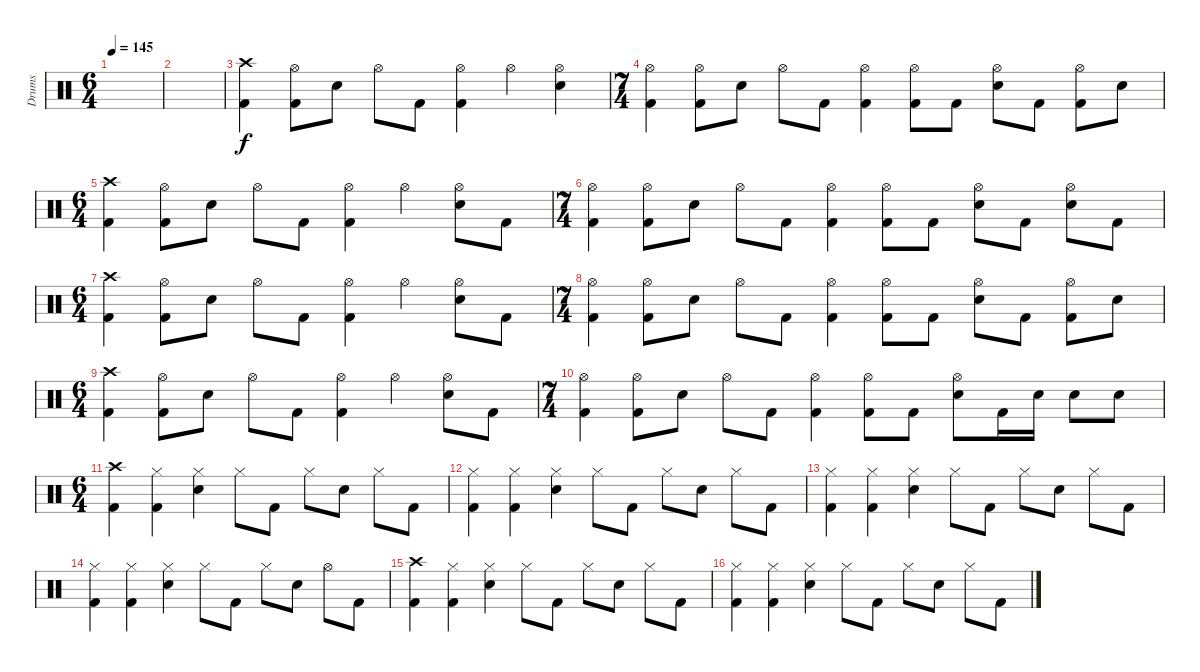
\track ("Drums" "Drums") {instrument percussion}
\staff {score}
\articulation defaults
\ts (6 4)
\tempo 145
\clef neutral
\ks c
|
|
("Crash high (hit)" "Kick (hit) 2").4 ("Hi-Hat (open)" "Kick (hit) 2").8 "Snare (hit) 2".8 "Hi-Hat (open)".8 "Kick (hit) 2".8 ("Hi-Hat (open)" "Kick (hit) 2").4 "Hi-Hat (open)".4 ("Hi-Hat (open)" "Snare (hit) 2").4 |
\ts (7 4)
("Hi-Hat (open)" "Kick (hit) 2").4 ("Hi-Hat (open)" "Kick (hit) 2").8 "Snare (hit) 2".8 "Hi-Hat (open)".8 "Kick (hit) 2".8 ("Hi-Hat (open)" "Kick (hit) 2").4 ("Hi-Hat (open)" "Kick (hit) 2").8 "Kick (hit) 2".8 ("Hi-Hat (open)" "Snare (hit) 2").8 "Kick (hit) 2".8 ("Hi-Hat (open)" "Kick (hit) 2").8 "Snare (hit) 2".8 |
\ts (6 4)
("Crash high (hit)" "Kick (hit) 2").4 ("Hi-Hat (open)" "Kick (hit) 2").8 "Snare (hit) 2".8 "Hi-Hat (open)".8 "Kick (hit) 2".8 ("Hi-Hat (open)" "Kick (hit) 2").4 "Hi-Hat (open)".4 ("Hi-Hat (open)" "Snare (hit) 2").8 "Kick (hit) 2".8 |
\ts (7 4)
("Hi-Hat (open)" "Kick (hit) 2").4 ("Hi-Hat (open)" "Kick (hit) 2").8 "Snare (hit) 2".8 "Hi-Hat (open)".8 "Kick (hit) 2".8 ("Hi-Hat (open)" "Kick (hit) 2").4 ("Hi-Hat (open)" "Kick (hit) 2").8 "Kick (hit) 2".8 ("Hi-Hat (open)" "Snare (hit) 2").8 "Kick (hit) 2".8 ("Hi-Hat (open)" "Snare (hit) 2").8 "Kick (hit) 2".8 |
\ts (6 4)
("Crash high (hit)" "Kick (hit) 2").4 ("Hi-Hat (open)" "Kick (hit) 2").8 "Snare (hit) 2".8 "Hi-Hat (open)".8 "Kick (hit) 2".8 ("Hi-Hat (open)" "Kick (hit) 2").4 "Hi-Hat (open)".4 ("Hi-Hat (open)" "Snare (hit) 2").8 "Kick (hit) 2".8 |
\ts (7 4)
("Hi-Hat (open)" "Kick (hit) 2").4 ("Hi-Hat (open)" "Kick (hit) 2").8 "Snare (hit) 2".8 "Hi-Hat (open)".8 "Kick (hit) 2".8 ("Hi-Hat (open)" "Kick (hit) 2").4 ("Hi-Hat (open)" "Kick (hit) 2").8 "Kick (hit) 2".8 ("Hi-Hat (open)" "Snare (hit) 2").8 "Kick (hit) 2".8 ("Hi-Hat (open)" "Kick (hit) 2").8 "Snare (hit) 2".8 |
\ts (6 4)
("Crash high (hit)" "Kick (hit) 2").4 ("Hi-Hat (open)" "Kick (hit) 2").8 "Snare (hit) 2".8 "Hi-Hat (open)".8 "Kick (hit) 2".8 ("Hi-Hat (open)" "Kick (hit) 2").4 "Hi-Hat (open)".4 ("Hi-Hat (open)" "Snare (hit) 2").8 "Kick (hit) 2".8 |
\ts (7 4)
("Hi-Hat (open)" "Kick (hit) 2").4 ("Hi-Hat (open)" "Kick (hit) 2").8 "Snare (hit) 2".8 "Hi-Hat (open)".8 "Kick (hit) 2".8 ("Hi-Hat (open)" "Kick (hit) 2").4 ("Hi-Hat (open)" "Kick (hit) 2").8 "Kick (hit) 2".8 ("Hi-Hat (open)" "Snare (hit) 2").8 "Kick (hit) 2".16 "Snare (hit) 2".16 "Snare (hit) 2".8 "Snare (hit) 2".8 |
\ts (6 4)
("Crash high (hit)" "Kick (hit) 2").4 ("Hi-Hat (closed)" "Kick (hit) 2").4 ("Hi-Hat (closed)" "Snare (hit) 2").4 "Hi-Hat (closed)".8 "Kick (hit) 2".8 "Hi-Hat (closed)".8 "Snare (hit) 2".8 "Hi-Hat (closed)".8 "Kick (hit) 2".8 |
("Hi-Hat (closed)" "Kick (hit) 2").4 ("Hi-Hat (closed)" "Kick (hit) 2").4 ("Hi-Hat (closed)" "Snare (hit) 2").4 "Hi-Hat (closed)".8 "Kick (hit) 2".8 "Hi-Hat (closed)".8 "Snare (hit) 2".8 "Hi-Hat (closed)".8 "Kick (hit) 2".8 |
("Hi-Hat (closed)" "Kick (hit) 2").4 ("Hi-Hat (closed)" "Kick (hit) 2").4 ("Hi-Hat (closed)" "Snare (hit) 2").4 "Hi-Hat (closed)".8 "Kick (hit) 2".8 "Hi-Hat (closed)".8 "Snare (hit) 2".8 "Hi-Hat (closed)".8 "Kick (hit) 2".8 |
("Hi-Hat (closed)" "Kick (hit) 2").4 ("Hi-Hat (closed)" "Kick (hit) 2").4 ("Hi-Hat (closed)" "Snare (hit) 2").4 "Hi-Hat (closed)".8 "Kick (hit) 2".8 "Hi-Hat (closed)".8 "Snare (hit) 2".8 "Hi-Hat (open)".8 "Kick (hit) 2".8 |
("Crash high (hit)" "Kick (hit) 2").4 ("Hi-Hat (closed)" "Kick (hit) 2").4 ("Hi-Hat (closed)" "Snare (hit) 2").4 "Hi-Hat (closed)".8 "Kick (hit) 2".8 "Hi-Hat (closed)".8 "Snare (hit) 2".8 "Hi-Hat (closed)".8 "Kick (hit) 2".8 |
("Hi-Hat (closed)" "Kick (hit) 2").4 ("Hi-Hat (closed)" "Kick (hit) 2").4 ("Hi-Hat (closed)" "Snare (hit) 2").4 "Hi-Hat (closed)".8 "Kick (hit) 2".8 "Hi-Hat (closed)".8 "Snare (hit) 2".8 "Hi-Hat (closed)".8 "Kick (hit) 2".8
